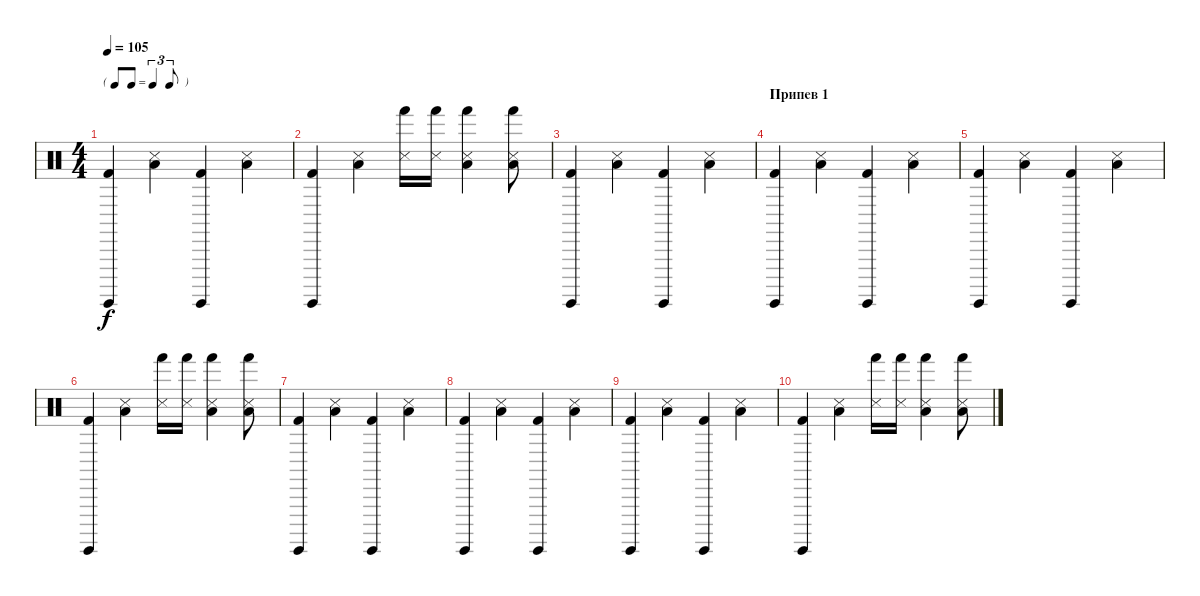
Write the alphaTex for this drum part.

\track "" {instrument percussion}
\staff {score}
\articulation defaults
\ts (4 4)
\tf triplet8th
\tempo 105
\clef neutral
\ks c
("Surdo (hit)" "Kick (hit) 2").4{dy f} ("Metronome (hit)" "Low Floor Tom (hit)").4 ("Surdo (hit)" "Kick (hit) 2").4 ("Metronome (hit)" "Low Floor Tom (hit)").4 |
("Surdo (hit)" "Kick (hit) 2").4 ("Metronome (hit)" "Low Floor Tom (hit)").4 ("Metronome (hit)" "Hand (hit)").16 ("Metronome (hit)" "Hand (hit)").16 ("Metronome (hit)" "Low Floor Tom (hit)" "Hand (hit)").4 ("Metronome (hit)" "Low Floor Tom (hit)" "Hand (hit)").8 |
("Surdo (hit)" "Kick (hit) 2").4 ("Metronome (hit)" "Low Floor Tom (hit)").4 ("Surdo (hit)" "Kick (hit) 2").4 ("Metronome (hit)" "Low Floor Tom (hit)").4 |
\section ("" "Припев 1")
("Surdo (hit)" "Kick (hit) 2").4 ("Metronome (hit)" "Low Floor Tom (hit)").4 ("Surdo (hit)" "Kick (hit) 2").4 ("Metronome (hit)" "Low Floor Tom (hit)").4 |
("Surdo (hit)" "Kick (hit) 2").4 ("Metronome (hit)" "Low Floor Tom (hit)").4 ("Surdo (hit)" "Kick (hit) 2").4 ("Metronome (hit)" "Low Floor Tom (hit)").4 |
("Surdo (hit)" "Kick (hit) 2").4 ("Metronome (hit)" "Low Floor Tom (hit)").4 ("Metronome (hit)" "Hand (hit)").16 ("Metronome (hit)" "Hand (hit)").16 ("Metronome (hit)" "Low Floor Tom (hit)" "Hand (hit)").4 ("Metronome (hit)" "Low Floor Tom (hit)" "Hand (hit)").8 |
("Surdo (hit)" "Kick (hit) 2").4 ("Metronome (hit)" "Low Floor Tom (hit)").4 ("Surdo (hit)" "Kick (hit) 2").4 ("Metronome (hit)" "Low Floor Tom (hit)").4 |
("Surdo (hit)" "Kick (hit) 2").4 ("Metronome (hit)" "Low Floor Tom (hit)").4 ("Surdo (hit)" "Kick (hit) 2").4 ("Metronome (hit)" "Low Floor Tom (hit)").4 |
("Surdo (hit)" "Kick (hit) 2").4 ("Metronome (hit)" "Low Floor Tom (hit)").4 ("Surdo (hit)" "Kick (hit) 2").4 ("Metronome (hit)" "Low Floor Tom (hit)").4 |
("Surdo (hit)" "Kick (hit) 2").4 ("Metronome (hit)" "Low Floor Tom (hit)").4 ("Metronome (hit)" "Hand (hit)").16 ("Metronome (hit)" "Hand (hit)").16 ("Metronome (hit)" "Low Floor Tom (hit)" "Hand (hit)").4 ("Metronome (hit)" "Low Floor Tom (hit)" "Hand (hit)").8
